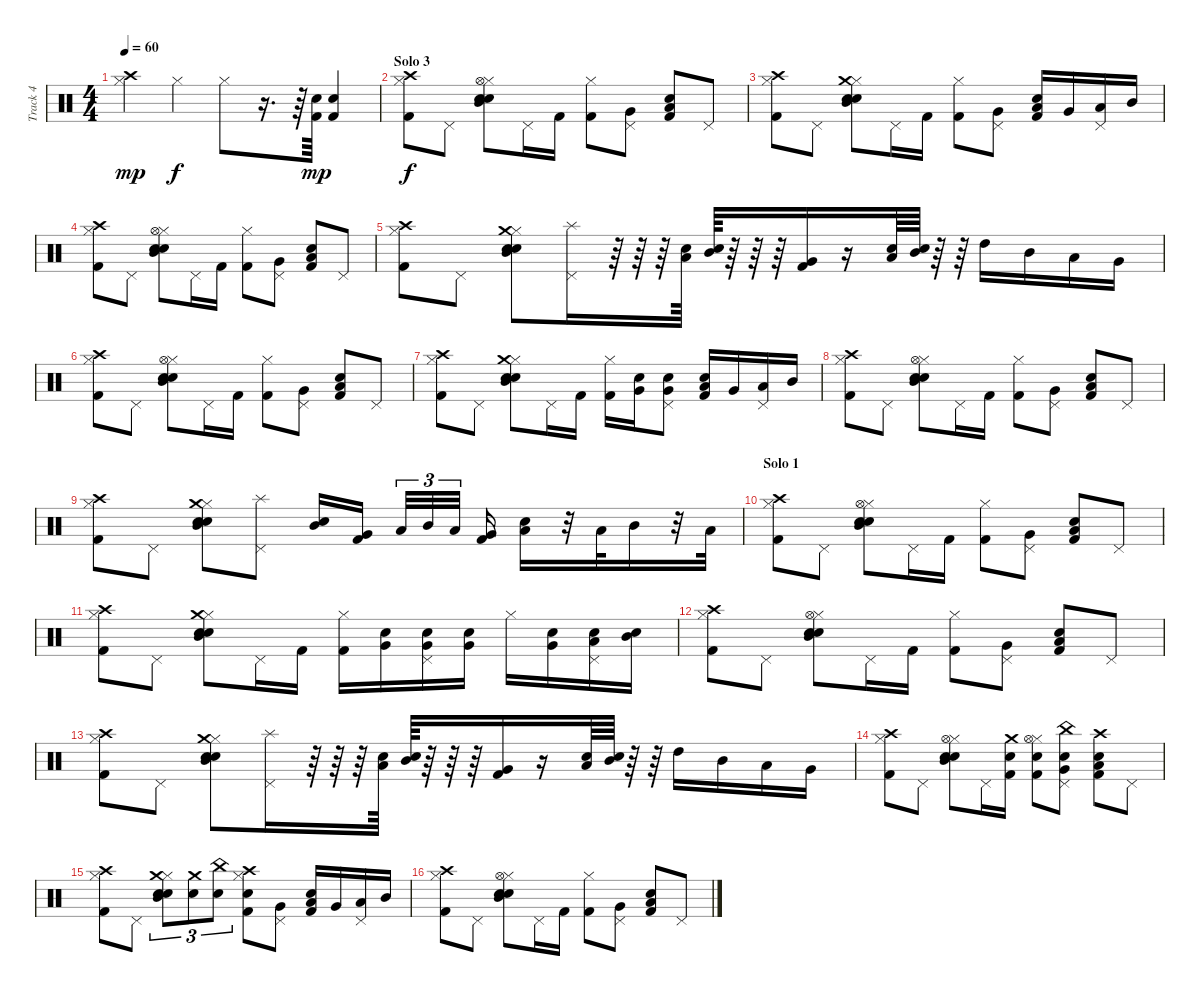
\track ("Track 4" "Track 4") {instrument percussion}
\staff {score}
\articulation defaults
\ts (4 4)
\tempo 60
\clef neutral
\ks c
("Hi-Hat (closed)" "Crash high (hit)").4{dy mp} "Hi-Hat (closed)".4{dy f} "Hi-Hat (closed)".8 r.16{d} r.64 ("Kick (hit) 2" "Snare (hit) 2").64{dy mp} ("Kick (hit) 2" "Snare (hit) 2").4 |
\section ("" "Solo 3")
("Hi-Hat (closed)" "Kick (hit) 2" "Crash high (hit)").8{dy f} "Pedal Hi-Hat (hit)".8 ("Hi-Hat (closed)" "Mid Tom (hit)" "Electric Snare (hit)" "Snare (hit) 2" "Hi-Hat (open)").8 "Pedal Hi-Hat (hit)".16 "Kick (hit) 2".16 ("Hi-Hat (closed)" "Kick (hit) 2").8 ("Pedal Hi-Hat (hit)" "Very Low Tom (hit)").8 ("Low Tom (hit)" "Kick (hit) 2" "Snare (hit) 2").8 "Pedal Hi-Hat (hit)".8 |
("Hi-Hat (closed)" "Kick (hit) 2" "Crash high (hit)").8 "Pedal Hi-Hat (hit)".8 ("Hi-Hat (closed)" "Mid Tom (hit)" "Electric Snare (hit)" "Snare (hit) 2" "Crash medium (hit)").8 "Pedal Hi-Hat (hit)".16 "Kick (hit) 2".16 ("Hi-Hat (closed)" "Kick (hit) 2").8 ("Pedal Hi-Hat (hit)" "Very Low Tom (hit)").8 ("Low Tom (hit)" "Kick (hit) 2" "Snare (hit) 2").16 "Very Low Tom (hit)".16 ("Pedal Hi-Hat (hit)" "Low Tom (hit)").16 "Mid Tom (hit)".16 |
("Hi-Hat (closed)" "Kick (hit) 2" "Crash high (hit)").8 "Pedal Hi-Hat (hit)".8 ("Hi-Hat (closed)" "Mid Tom (hit)" "Electric Snare (hit)" "Snare (hit) 2" "Hi-Hat (open)").8 "Pedal Hi-Hat (hit)".16 "Kick (hit) 2".16 ("Hi-Hat (closed)" "Kick (hit) 2").8 ("Pedal Hi-Hat (hit)" "Very Low Tom (hit)").8 ("Low Tom (hit)" "Kick (hit) 2" "Snare (hit) 2").8 "Pedal Hi-Hat (hit)".8 |
("Hi-Hat (closed)" "Kick (hit) 2" "Crash high (hit)").8 "Pedal Hi-Hat (hit)".8 ("Hi-Hat (closed)" "Mid Tom (hit)" "Electric Snare (hit)" "Snare (hit) 2" "Crash medium (hit)").8 ("Pedal Hi-Hat (hit)" "Splash (hit)").16 r.64 r.64 r.64 ("Low Tom (hit)" "Electric Snare (hit)").64 ("Mid Tom (hit)" "Electric Snare (hit)").64 r.64 r.64 r.64 ("Very Low Tom (hit)" "Kick (hit) 2").16 r.16 ("Low Tom (hit)" "Electric Snare (hit)").64 ("Mid Tom (hit)" "Electric Snare (hit)").64 r.64 r.64 "High Tom (hit)".16 "Mid Tom (hit)".16 "Low Tom (hit)".16 "Very Low Tom (hit)".16 |
("Hi-Hat (closed)" "Kick (hit) 2" "Crash high (hit)").8 "Pedal Hi-Hat (hit)".8 ("Hi-Hat (closed)" "Mid Tom (hit)" "Electric Snare (hit)" "Snare (hit) 2" "Hi-Hat (open)").8 "Pedal Hi-Hat (hit)".16 "Kick (hit) 2".16 ("Hi-Hat (closed)" "Kick (hit) 2").8 ("Pedal Hi-Hat (hit)" "Very Low Tom (hit)").8 ("Low Tom (hit)" "Kick (hit) 2" "Snare (hit) 2").8 "Pedal Hi-Hat (hit)".8 |
("Hi-Hat (closed)" "Kick (hit) 2" "Crash high (hit)").8 "Pedal Hi-Hat (hit)".8 ("Hi-Hat (closed)" "Mid Tom (hit)" "Electric Snare (hit)" "Snare (hit) 2" "Crash medium (hit)").8 "Pedal Hi-Hat (hit)".16 "Kick (hit) 2".16 ("Hi-Hat (closed)" "Kick (hit) 2").16 ("Very Low Tom (hit)" "Electric Snare (hit)").16 ("Pedal Hi-Hat (hit)" "Very Low Tom (hit)" "Electric Snare (hit)").8 ("Low Tom (hit)" "Kick (hit) 2" "Snare (hit) 2").16 "Very Low Tom (hit)".16 ("Pedal Hi-Hat (hit)" "Low Tom (hit)").16 "Mid Tom (hit)".16 |
("Hi-Hat (closed)" "Kick (hit) 2" "Crash high (hit)").8 "Pedal Hi-Hat (hit)".8 ("Hi-Hat (closed)" "Mid Tom (hit)" "Electric Snare (hit)" "Snare (hit) 2" "Hi-Hat (open)").8 "Pedal Hi-Hat (hit)".16 "Kick (hit) 2".16 ("Hi-Hat (closed)" "Kick (hit) 2").8 ("Pedal Hi-Hat (hit)" "Very Low Tom (hit)").8 ("Low Tom (hit)" "Kick (hit) 2" "Snare (hit) 2").8 "Pedal Hi-Hat (hit)".8 |
("Hi-Hat (closed)" "Kick (hit) 2" "Crash high (hit)").8 "Pedal Hi-Hat (hit)".8 ("Hi-Hat (closed)" "Mid Tom (hit)" "Electric Snare (hit)" "Snare (hit) 2" "Crash medium (hit)").8 ("Pedal Hi-Hat (hit)" "Splash (hit)").8 ("Mid Tom (hit)" "Electric Snare (hit)").16 ("Very Low Tom (hit)" "Kick (hit) 2").16 "Low Tom (hit)".32{tu (3 2)} "Mid Tom (hit)".32{tu (3 2)} "Low Tom (hit)".32{tu (3 2)} ("Very Low Tom (hit)" "Kick (hit) 2").16 ("Low Tom (hit)" "Electric Snare (hit)").16 r.32 "Low Tom (hit)".32 "Mid Tom (hit)".16 r.32 "Low Tom (hit)".32 |
\section ("" "Solo 1")
("Hi-Hat (closed)" "Kick (hit) 2" "Crash high (hit)").8 "Pedal Hi-Hat (hit)".8 ("Hi-Hat (closed)" "Mid Tom (hit)" "Electric Snare (hit)" "Snare (hit) 2" "Hi-Hat (open)").8 "Pedal Hi-Hat (hit)".16 "Kick (hit) 2".16 ("Hi-Hat (closed)" "Kick (hit) 2").8 ("Pedal Hi-Hat (hit)" "Very Low Tom (hit)").8 ("Low Tom (hit)" "Kick (hit) 2" "Snare (hit) 2").8 "Pedal Hi-Hat (hit)".8 |
("Hi-Hat (closed)" "Kick (hit) 2" "Crash high (hit)").8 "Pedal Hi-Hat (hit)".8 ("Hi-Hat (closed)" "Mid Tom (hit)" "Electric Snare (hit)" "Snare (hit) 2" "Crash medium (hit)").8 "Pedal Hi-Hat (hit)".16 "Kick (hit) 2".16 ("Hi-Hat (closed)" "Kick (hit) 2").16 ("Very Low Tom (hit)" "Electric Snare (hit)").16 ("Pedal Hi-Hat (hit)" "Very Low Tom (hit)" "Electric Snare (hit)").16 ("Electric Snare (hit)" "Very Low Tom (hit)").16 "Hi-Hat (closed)".16 ("Very Low Tom (hit)" "Electric Snare (hit)").16 ("Pedal Hi-Hat (hit)" "Low Tom (hit)" "Electric Snare (hit)").16 ("Mid Tom (hit)" "Electric Snare (hit)").16 |
("Hi-Hat (closed)" "Kick (hit) 2" "Crash high (hit)").8 "Pedal Hi-Hat (hit)".8 ("Hi-Hat (closed)" "Mid Tom (hit)" "Electric Snare (hit)" "Snare (hit) 2" "Hi-Hat (open)").8 "Pedal Hi-Hat (hit)".16 "Kick (hit) 2".16 ("Hi-Hat (closed)" "Kick (hit) 2").8 ("Pedal Hi-Hat (hit)" "Very Low Tom (hit)").8 ("Low Tom (hit)" "Kick (hit) 2" "Snare (hit) 2").8 "Pedal Hi-Hat (hit)".8 |
("Hi-Hat (closed)" "Kick (hit) 2" "Crash high (hit)").8 "Pedal Hi-Hat (hit)".8 ("Hi-Hat (closed)" "Mid Tom (hit)" "Electric Snare (hit)" "Snare (hit) 2" "Crash medium (hit)").8 ("Pedal Hi-Hat (hit)" "Splash (hit)").16 r.64 r.64 r.64 ("Low Tom (hit)" "Electric Snare (hit)").64 ("Mid Tom (hit)" "Electric Snare (hit)").64 r.64 r.64 r.64 ("Very Low Tom (hit)" "Kick (hit) 2").16 r.16 ("Low Tom (hit)" "Electric Snare (hit)").64 ("Mid Tom (hit)" "Electric Snare (hit)").64 r.64 r.64 "High Tom (hit)".16 "Mid Tom (hit)".16 "Low Tom (hit)".16 "Very Low Tom (hit)".16 |
("Hi-Hat (closed)" "Kick (hit) 2" "Crash high (hit)").8 "Pedal Hi-Hat (hit)".8 ("Hi-Hat (closed)" "Mid Tom (hit)" "Electric Snare (hit)" "Snare (hit) 2" "Hi-Hat (open)").8 "Pedal Hi-Hat (hit)".16 ("Kick (hit) 2" "Snare (hit) 2" "Crash medium (hit)").16 ("Hi-Hat (closed)" "Kick (hit) 2" "Snare (hit) 2" "Hi-Hat (open)").8 ("Pedal Hi-Hat (hit)" "Very Low Tom (hit)" "Snare (hit) 2" "China (hit)").8 ("Low Tom (hit)" "Kick (hit) 2" "Snare (hit) 2" "Crash high (hit)").8 "Pedal Hi-Hat (hit)".8 |
("Hi-Hat (closed)" "Kick (hit) 2" "Crash high (hit)").8 "Pedal Hi-Hat (hit)".8 ("Hi-Hat (closed)" "Mid Tom (hit)" "Electric Snare (hit)" "Snare (hit) 2" "Crash medium (hit)").8{tu (3 2)} ("Snare (hit) 2" "Crash medium (hit)").8{tu (3 2)} ("Snare (hit) 2" "China (hit)").8{tu (3 2)} ("Hi-Hat (closed)" "Kick (hit) 2" "Snare (hit) 2" "Crash high (hit)").8 ("Pedal Hi-Hat (hit)" "Very Low Tom (hit)").8 ("Low Tom (hit)" "Kick (hit) 2" "Snare (hit) 2").16 "Very Low Tom (hit)".16 ("Pedal Hi-Hat (hit)" "Low Tom (hit)").16 "Mid Tom (hit)".16 |
("Hi-Hat (closed)" "Kick (hit) 2" "Crash high (hit)").8 "Pedal Hi-Hat (hit)".8 ("Hi-Hat (closed)" "Mid Tom (hit)" "Electric Snare (hit)" "Snare (hit) 2" "Hi-Hat (open)").8 "Pedal Hi-Hat (hit)".16 "Kick (hit) 2".16 ("Hi-Hat (closed)" "Kick (hit) 2").8 ("Pedal Hi-Hat (hit)" "Very Low Tom (hit)").8 ("Low Tom (hit)" "Kick (hit) 2" "Snare (hit) 2").8 "Pedal Hi-Hat (hit)".8
